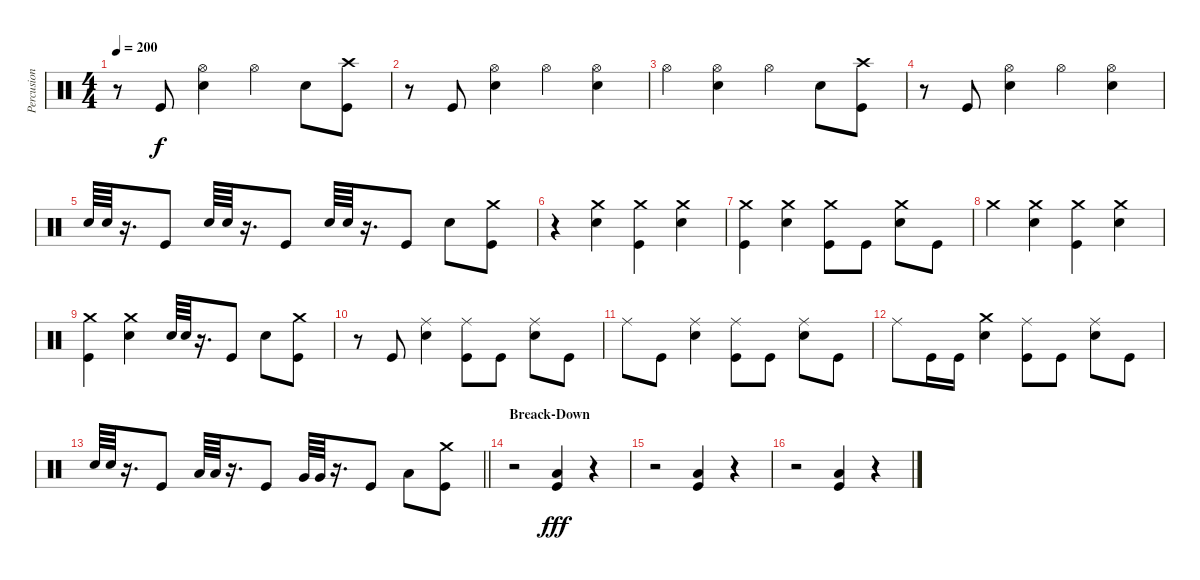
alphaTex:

\track ("Percusion" "Percusion") {instrument percussion}
\staff {score}
\articulation defaults
\ts (4 4)
\tempo 200
\clef neutral
\ks c
r.8{dy f} "Kick (hit)".8 ("Hi-Hat (open)" "Snare (hit) 2").4 "Hi-Hat (open)".4 "Snare (hit) 2".8 ("Kick (hit)" "Crash high (hit)").8 |
r.8 "Kick (hit)".8 ("Hi-Hat (open)" "Snare (hit) 2").4 "Hi-Hat (open)".4 ("Snare (hit) 2" "Hi-Hat (open)").4 |
"Hi-Hat (open)".4 ("Snare (hit) 2" "Hi-Hat (open)").4 "Hi-Hat (open)".4 "Snare (hit) 2".8 ("Kick (hit)" "Crash high (hit)").8 |
r.8 "Kick (hit)".8 ("Hi-Hat (open)" "Snare (hit) 2").4 "Hi-Hat (open)".4 ("Snare (hit) 2" "Hi-Hat (open)").4 |
"Snare (hit) 2".64 "Snare (hit) 2".64 r.16{d} "Kick (hit)".8 "Snare (hit) 2".64 "Snare (hit) 2".64 r.16{d} "Kick (hit)".8 "Snare (hit) 2".64 "Snare (hit) 2".64 r.16{d} "Kick (hit)".8 "Snare (hit) 2".8 ("Crash medium (hit)" "Kick (hit)").8 |
r.4 ("Crash medium (hit)" "Snare (hit) 2").4 ("Crash medium (hit)" "Kick (hit)").4 ("Crash medium (hit)" "Snare (hit) 2").4 |
("Crash medium (hit)" "Kick (hit)").4 ("Snare (hit) 2" "Crash medium (hit)").4 ("Kick (hit)" "Crash medium (hit)").8 "Kick (hit)".8 ("Snare (hit) 2" "Crash medium (hit)").8 "Kick (hit)".8 |
"Crash medium (hit)".4 ("Snare (hit) 2" "Crash medium (hit)").4 ("Crash medium (hit)" "Kick (hit)").4 ("Snare (hit) 2" "Crash medium (hit)").4 |
("Crash medium (hit)" "Kick (hit)").4 ("Snare (hit) 2" "Crash medium (hit)").4 "Snare (hit) 2".64 "Snare (hit) 2".64 r.16{d} "Kick (hit)".8 "Snare (hit) 2".8 ("Crash medium (hit)" "Kick (hit)").8 |
r.8 "Kick (hit)".8 ("Ride (middle)" "Snare (hit) 2").4 ("Ride (middle)" "Kick (hit)").8 "Kick (hit)".8 ("Ride (middle)" "Snare (hit) 2").8 "Kick (hit)".8 |
"Ride (middle)".8 "Kick (hit)".8 ("Snare (hit) 2" "Ride (middle)").4 ("Ride (middle)" "Kick (hit)").8 "Kick (hit)".8 ("Ride (middle)" "Snare (hit) 2").8 "Kick (hit)".8 |
"Ride (middle)".8 "Kick (hit)".16 "Kick (hit)".16 ("Snare (hit) 2" "Crash medium (hit)").4 ("Ride (middle)" "Kick (hit)").8 "Kick (hit)".8 ("Snare (hit) 2" "Ride (middle)").8 "Kick (hit)".8 |
\barLineRight lightlight "Snare (hit) 2".64 "Snare (hit) 2".64
r.16{d} "Kick (hit)".8 "Low Tom (hit)".64 "Low Tom (hit)".64 r.16{d} "Kick (hit)".8 "Very Low Tom (hit)".64 "Very Low Tom (hit)".64 r.16{d} "Kick (hit)".8 "Low Floor Tom (hit)".8 ("Kick (hit)" "Crash medium (hit)").8 |
\section ("" "Breack-Down")
r.2 ("Low Floor Tom (hit)" "Kick (hit)").4{dy fff} r.4 |
r.2 ("Low Floor Tom (hit)" "Kick (hit)").4 r.4 |
r.2 ("Low Floor Tom (hit)" "Kick (hit)").4 r.4
